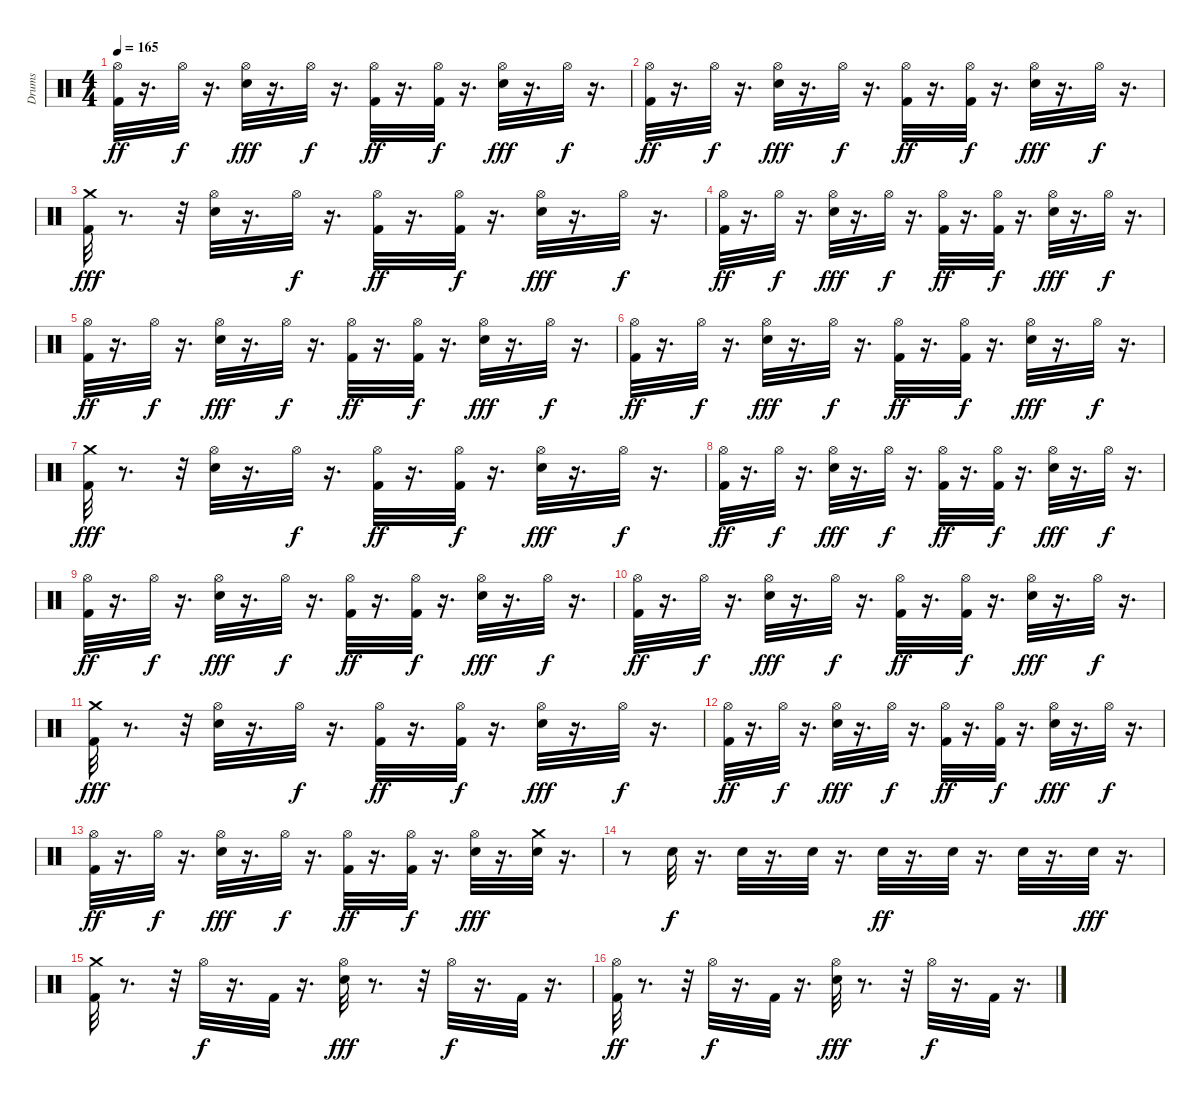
\track ("Drums" "Drums") {instrument percussion}
\staff {score}
\articulation defaults
\ts (4 4)
\tempo 165
\clef neutral
\ks c
("Kick (hit) 2" "Hi-Hat (open)").32{dy ff} r.16{d} "Hi-Hat (open)".32{dy f} r.16{d} ("Snare (hit) 2" "Hi-Hat (open)").32{dy fff} r.16{d} "Hi-Hat (open)".32{dy f} r.16{d} ("Kick (hit) 2" "Hi-Hat (open)").32{dy ff} r.16{d} ("Kick (hit) 2" "Hi-Hat (open)").32{dy f} r.16{d} ("Snare (hit) 2" "Hi-Hat (open)").32{dy fff} r.16{d} "Hi-Hat (open)".32{dy f} r.16{d} |
("Kick (hit) 2" "Hi-Hat (open)").32{dy ff} r.16{d} "Hi-Hat (open)".32{dy f} r.16{d} ("Snare (hit) 2" "Hi-Hat (open)").32{dy fff} r.16{d} "Hi-Hat (open)".32{dy f} r.16{d} ("Kick (hit) 2" "Hi-Hat (open)").32{dy ff} r.16{d} ("Kick (hit) 2" "Hi-Hat (open)").32{dy f} r.16{d} ("Snare (hit) 2" "Hi-Hat (open)").32{dy fff} r.16{d} "Hi-Hat (open)".32{dy f} r.16{d} |
("Kick (hit) 2" "Crash medium (hit)").32{dy fff} r.8{d} r.32 ("Snare (hit) 2" "Hi-Hat (open)").32 r.16{d} "Hi-Hat (open)".32{dy f} r.16{d} ("Kick (hit) 2" "Hi-Hat (open)").32{dy ff} r.16{d} ("Kick (hit) 2" "Hi-Hat (open)").32{dy f} r.16{d} ("Snare (hit) 2" "Hi-Hat (open)").32{dy fff} r.16{d} "Hi-Hat (open)".32{dy f} r.16{d} |
("Kick (hit) 2" "Hi-Hat (open)").32{dy ff} r.16{d} "Hi-Hat (open)".32{dy f} r.16{d} ("Snare (hit) 2" "Hi-Hat (open)").32{dy fff} r.16{d} "Hi-Hat (open)".32{dy f} r.16{d} ("Kick (hit) 2" "Hi-Hat (open)").32{dy ff} r.16{d} ("Kick (hit) 2" "Hi-Hat (open)").32{dy f} r.16{d} ("Snare (hit) 2" "Hi-Hat (open)").32{dy fff} r.16{d} "Hi-Hat (open)".32{dy f} r.16{d} |
("Kick (hit) 2" "Hi-Hat (open)").32{dy ff} r.16{d} "Hi-Hat (open)".32{dy f} r.16{d} ("Snare (hit) 2" "Hi-Hat (open)").32{dy fff} r.16{d} "Hi-Hat (open)".32{dy f} r.16{d} ("Kick (hit) 2" "Hi-Hat (open)").32{dy ff} r.16{d} ("Kick (hit) 2" "Hi-Hat (open)").32{dy f} r.16{d} ("Snare (hit) 2" "Hi-Hat (open)").32{dy fff} r.16{d} "Hi-Hat (open)".32{dy f} r.16{d} |
("Kick (hit) 2" "Hi-Hat (open)").32{dy ff} r.16{d} "Hi-Hat (open)".32{dy f} r.16{d} ("Snare (hit) 2" "Hi-Hat (open)").32{dy fff} r.16{d} "Hi-Hat (open)".32{dy f} r.16{d} ("Kick (hit) 2" "Hi-Hat (open)").32{dy ff} r.16{d} ("Kick (hit) 2" "Hi-Hat (open)").32{dy f} r.16{d} ("Snare (hit) 2" "Hi-Hat (open)").32{dy fff} r.16{d} "Hi-Hat (open)".32{dy f} r.16{d} |
("Kick (hit) 2" "Crash medium (hit)").32{dy fff} r.8{d} r.32 ("Snare (hit) 2" "Hi-Hat (open)").32 r.16{d} "Hi-Hat (open)".32{dy f} r.16{d} ("Kick (hit) 2" "Hi-Hat (open)").32{dy ff} r.16{d} ("Kick (hit) 2" "Hi-Hat (open)").32{dy f} r.16{d} ("Snare (hit) 2" "Hi-Hat (open)").32{dy fff} r.16{d} "Hi-Hat (open)".32{dy f} r.16{d} |
("Kick (hit) 2" "Hi-Hat (open)").32{dy ff} r.16{d} "Hi-Hat (open)".32{dy f} r.16{d} ("Snare (hit) 2" "Hi-Hat (open)").32{dy fff} r.16{d} "Hi-Hat (open)".32{dy f} r.16{d} ("Kick (hit) 2" "Hi-Hat (open)").32{dy ff} r.16{d} ("Kick (hit) 2" "Hi-Hat (open)").32{dy f} r.16{d} ("Snare (hit) 2" "Hi-Hat (open)").32{dy fff} r.16{d} "Hi-Hat (open)".32{dy f} r.16{d} |
("Kick (hit) 2" "Hi-Hat (open)").32{dy ff} r.16{d} "Hi-Hat (open)".32{dy f} r.16{d} ("Snare (hit) 2" "Hi-Hat (open)").32{dy fff} r.16{d} "Hi-Hat (open)".32{dy f} r.16{d} ("Kick (hit) 2" "Hi-Hat (open)").32{dy ff} r.16{d} ("Kick (hit) 2" "Hi-Hat (open)").32{dy f} r.16{d} ("Snare (hit) 2" "Hi-Hat (open)").32{dy fff} r.16{d} "Hi-Hat (open)".32{dy f} r.16{d} |
("Kick (hit) 2" "Hi-Hat (open)").32{dy ff} r.16{d} "Hi-Hat (open)".32{dy f} r.16{d} ("Snare (hit) 2" "Hi-Hat (open)").32{dy fff} r.16{d} "Hi-Hat (open)".32{dy f} r.16{d} ("Kick (hit) 2" "Hi-Hat (open)").32{dy ff} r.16{d} ("Kick (hit) 2" "Hi-Hat (open)").32{dy f} r.16{d} ("Snare (hit) 2" "Hi-Hat (open)").32{dy fff} r.16{d} "Hi-Hat (open)".32{dy f} r.16{d} |
("Kick (hit) 2" "Crash medium (hit)").32{dy fff} r.8{d} r.32 ("Snare (hit) 2" "Hi-Hat (open)").32 r.16{d} "Hi-Hat (open)".32{dy f} r.16{d} ("Kick (hit) 2" "Hi-Hat (open)").32{dy ff} r.16{d} ("Kick (hit) 2" "Hi-Hat (open)").32{dy f} r.16{d} ("Snare (hit) 2" "Hi-Hat (open)").32{dy fff} r.16{d} "Hi-Hat (open)".32{dy f} r.16{d} |
("Kick (hit) 2" "Hi-Hat (open)").32{dy ff} r.16{d} "Hi-Hat (open)".32{dy f} r.16{d} ("Snare (hit) 2" "Hi-Hat (open)").32{dy fff} r.16{d} "Hi-Hat (open)".32{dy f} r.16{d} ("Kick (hit) 2" "Hi-Hat (open)").32{dy ff} r.16{d} ("Kick (hit) 2" "Hi-Hat (open)").32{dy f} r.16{d} ("Snare (hit) 2" "Hi-Hat (open)").32{dy fff} r.16{d} "Hi-Hat (open)".32{dy f} r.16{d} |
("Kick (hit) 2" "Hi-Hat (open)").32{dy ff} r.16{d} "Hi-Hat (open)".32{dy f} r.16{d} ("Snare (hit) 2" "Hi-Hat (open)").32{dy fff} r.16{d} "Hi-Hat (open)".32{dy f} r.16{d} ("Kick (hit) 2" "Hi-Hat (open)").32{dy ff} r.16{d} ("Kick (hit) 2" "Hi-Hat (open)").32{dy f} r.16{d} ("Snare (hit) 2" "Hi-Hat (open)").32{dy fff} r.16{d} ("Crash medium (hit)" "Snare (hit) 2").32 r.16{d} |
r.8 "Snare (hit) 2".32{dy f} r.16{d} "Snare (hit) 2".32 r.16{d} "Snare (hit) 2".32 r.16{d} "Snare (hit) 2".32{dy ff} r.16{d} "Snare (hit) 2".32 r.16{d} "Snare (hit) 2".32 r.16{d} "Snare (hit) 2".32{dy fff} r.16{d} |
("Kick (hit) 2" "Crash medium (hit)").32 r.8{d} r.32 "Hi-Hat (open)".32{dy f} r.16{d} "Kick (hit) 2".32 r.16{d} ("Hi-Hat (open)" "Snare (hit) 2").32{dy fff} r.8{d} r.32 "Hi-Hat (open)".32{dy f} r.16{d} "Kick (hit) 2".32 r.16{d} |
("Hi-Hat (open)" "Kick (hit) 2").32{dy ff} r.8{d} r.32 "Hi-Hat (open)".32{dy f} r.16{d} "Kick (hit) 2".32 r.16{d} ("Hi-Hat (open)" "Snare (hit) 2").32{dy fff} r.8{d} r.32 "Hi-Hat (open)".32{dy f} r.16{d} "Kick (hit) 2".32 r.16{d}
